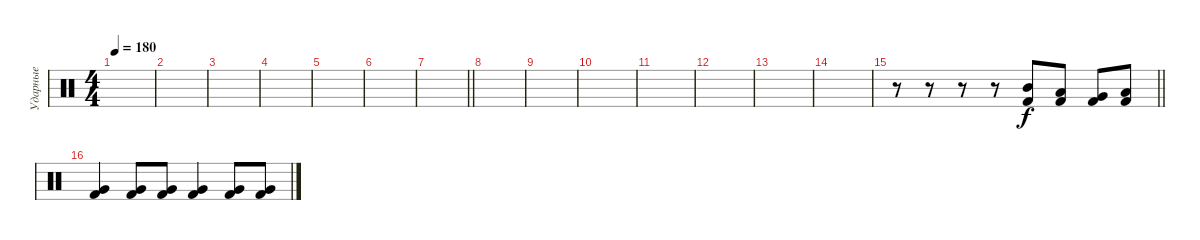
\track ("Ударные" "Ударные") {instrument percussion}
\staff {score}
\articulation defaults
\ts (4 4)
\tempo 180
\clef neutral
\ks c
|
|
|
|
|
|
\barLineRight lightlight
|
|
|
|
|
|
|
|
\barLineRight lightlight
r.8 r.8 r.8 r.8 ("Mid Tom (hit)" "Kick (hit) 2").8 ("Low Tom (hit)" "Kick (hit) 2").8 ("Very Low Tom (hit)" "Kick (hit) 2").8 ("Low Floor Tom (hit)" "Kick (hit) 2").8 |
("Very Low Tom (hit)" "Kick (hit) 2").4 ("Very Low Tom (hit)" "Kick (hit) 2").8 ("Very Low Tom (hit)" "Kick (hit) 2").8 ("Very Low Tom (hit)" "Kick (hit) 2").4 ("Kick (hit) 2" "Very Low Tom (hit)").8 ("Kick (hit) 2" "Very Low Tom (hit)").8
